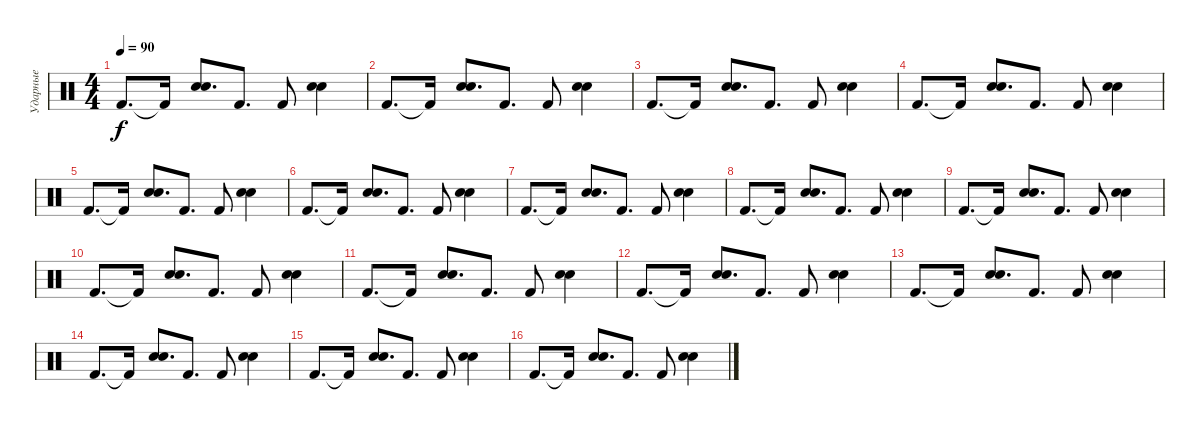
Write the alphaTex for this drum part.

\track ("Ударные" "Ударные") {instrument percussion}
\staff {score}
\articulation defaults
\ts (4 4)
\tempo 90
\clef neutral
\ks c "Kick (hit) 2".8{d dy f} "Kick (hit) 2"{t}.16
("Hand Clap (hit)" "Snare (hit) 2").8{d} "Kick (hit) 2".8{d} "Kick (hit) 2".8 ("Hand Clap (hit)" "Snare (hit) 2").4 |
"Kick (hit) 2".8{d} "Kick (hit) 2"{t}.16 ("Hand Clap (hit)" "Snare (hit) 2").8{d} "Kick (hit) 2".8{d} "Kick (hit) 2".8 ("Hand Clap (hit)" "Snare (hit) 2").4 |
"Kick (hit) 2".8{d} "Kick (hit) 2"{t}.16 ("Hand Clap (hit)" "Snare (hit) 2").8{d} "Kick (hit) 2".8{d} "Kick (hit) 2".8 ("Hand Clap (hit)" "Snare (hit) 2").4 |
"Kick (hit) 2".8{d} "Kick (hit) 2"{t}.16 ("Hand Clap (hit)" "Snare (hit) 2").8{d} "Kick (hit) 2".8{d} "Kick (hit) 2".8 ("Hand Clap (hit)" "Snare (hit) 2").4 |
"Kick (hit) 2".8{d} "Kick (hit) 2"{t}.16 ("Hand Clap (hit)" "Snare (hit) 2").8{d} "Kick (hit) 2".8{d} "Kick (hit) 2".8 ("Hand Clap (hit)" "Snare (hit) 2").4 |
"Kick (hit) 2".8{d} "Kick (hit) 2"{t}.16 ("Hand Clap (hit)" "Snare (hit) 2").8{d} "Kick (hit) 2".8{d} "Kick (hit) 2".8 ("Hand Clap (hit)" "Snare (hit) 2").4 |
"Kick (hit) 2".8{d} "Kick (hit) 2"{t}.16 ("Hand Clap (hit)" "Snare (hit) 2").8{d} "Kick (hit) 2".8{d} "Kick (hit) 2".8 ("Hand Clap (hit)" "Snare (hit) 2").4 |
"Kick (hit) 2".8{d} "Kick (hit) 2"{t}.16 ("Hand Clap (hit)" "Snare (hit) 2").8{d} "Kick (hit) 2".8{d} "Kick (hit) 2".8 ("Hand Clap (hit)" "Snare (hit) 2").4 |
"Kick (hit) 2".8{d} "Kick (hit) 2"{t}.16 ("Hand Clap (hit)" "Snare (hit) 2").8{d} "Kick (hit) 2".8{d} "Kick (hit) 2".8 ("Hand Clap (hit)" "Snare (hit) 2").4 |
"Kick (hit) 2".8{d} "Kick (hit) 2"{t}.16 ("Hand Clap (hit)" "Snare (hit) 2").8{d} "Kick (hit) 2".8{d} "Kick (hit) 2".8 ("Hand Clap (hit)" "Snare (hit) 2").4 |
"Kick (hit) 2".8{d} "Kick (hit) 2"{t}.16 ("Hand Clap (hit)" "Snare (hit) 2").8{d} "Kick (hit) 2".8{d} "Kick (hit) 2".8 ("Hand Clap (hit)" "Snare (hit) 2").4 |
"Kick (hit) 2".8{d} "Kick (hit) 2"{t}.16 ("Hand Clap (hit)" "Snare (hit) 2").8{d} "Kick (hit) 2".8{d} "Kick (hit) 2".8 ("Hand Clap (hit)" "Snare (hit) 2").4 |
"Kick (hit) 2".8{d} "Kick (hit) 2"{t}.16 ("Hand Clap (hit)" "Snare (hit) 2").8{d} "Kick (hit) 2".8{d} "Kick (hit) 2".8 ("Hand Clap (hit)" "Snare (hit) 2").4 |
"Kick (hit) 2".8{d} "Kick (hit) 2"{t}.16 ("Hand Clap (hit)" "Snare (hit) 2").8{d} "Kick (hit) 2".8{d} "Kick (hit) 2".8 ("Hand Clap (hit)" "Snare (hit) 2").4 |
"Kick (hit) 2".8{d} "Kick (hit) 2"{t}.16 ("Hand Clap (hit)" "Snare (hit) 2").8{d} "Kick (hit) 2".8{d} "Kick (hit) 2".8 ("Hand Clap (hit)" "Snare (hit) 2").4 |
"Kick (hit) 2".8{d} "Kick (hit) 2"{t}.16 ("Hand Clap (hit)" "Snare (hit) 2").8{d} "Kick (hit) 2".8{d} "Kick (hit) 2".8 ("Hand Clap (hit)" "Snare (hit) 2").4
